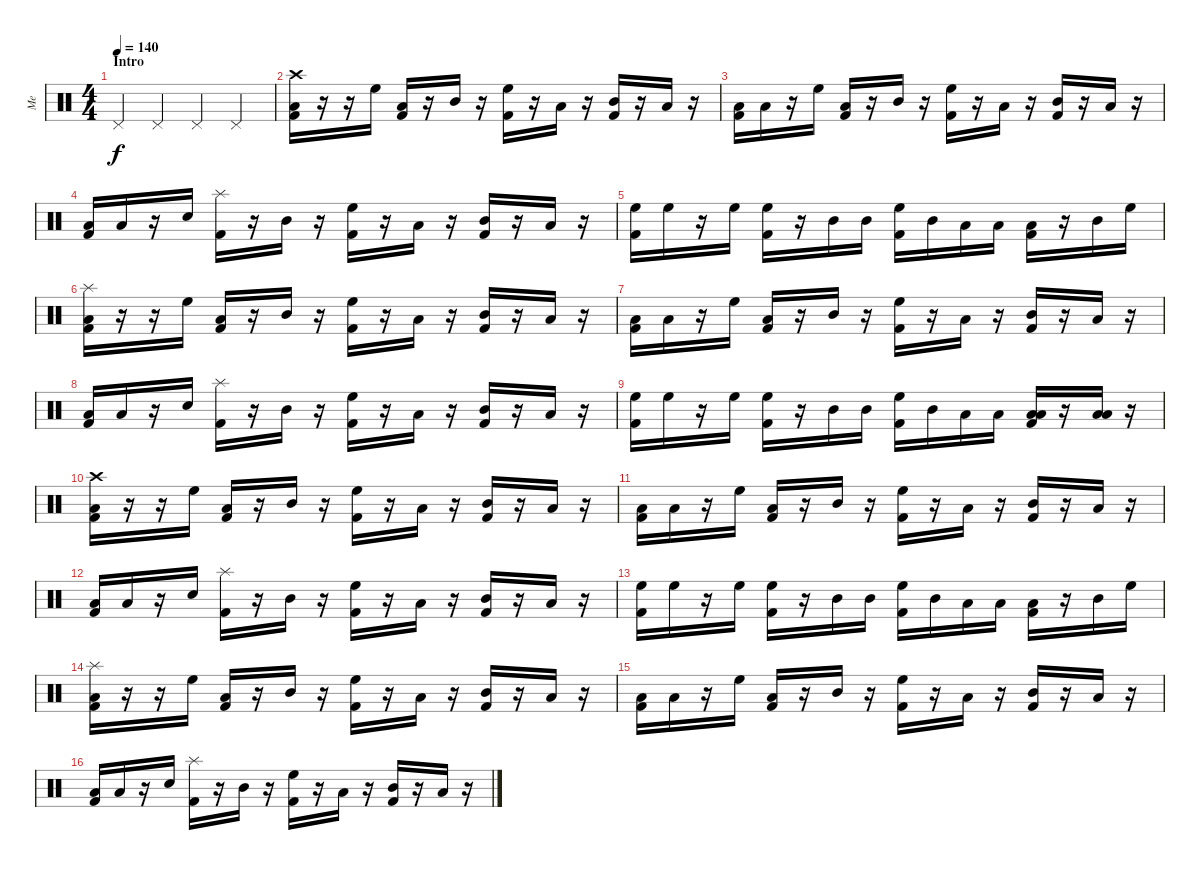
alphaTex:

\track ("Me" "Me") {instrument percussion}
\staff {score}
\articulation defaults
\ts (4 4)
\section ("" "Intro")
\tempo 140
\clef neutral
\ks c "Pedal Hi-Hat (hit)".4{dy f} "Pedal Hi-Hat (hit)".4 "Pedal Hi-Hat (hit)".4 "Pedal Hi-Hat (hit)".4
|
("Crash high (hit)" "Low Floor Tom (hit)" "Kick (hit) 2").16 r.16 r.16 "High Floor Tom (hit)".16 ("Low Tom (hit)" "Kick (hit) 2").16 r.16 "Mid Tom (hit)".16 r.16 ("High Floor Tom (hit)" "Kick (hit) 2").16 r.16 "Low Tom (hit)".16 r.16 ("Mid Tom (hit)" "Kick (hit) 2").16 r.16 "Low Floor Tom (hit)".16 r.16 |
("Low Floor Tom (hit)" "Kick (hit) 2").16 "Low Floor Tom (hit)".16 r.16 "High Floor Tom (hit)".16 ("Low Tom (hit)" "Kick (hit) 2").16 r.16 "Mid Tom (hit)".16 r.16 ("High Floor Tom (hit)" "Kick (hit) 2").16 r.16 "Low Tom (hit)".16 r.16 ("Mid Tom (hit)" "Kick (hit) 2").16 r.16 "Low Floor Tom (hit)".16 r.16 |
("Low Floor Tom (hit)" "Kick (hit) 2").16 "Low Floor Tom (hit)".16 r.16 "Electric Snare (hit)".16 ("Splash (hit)" "Kick (hit) 2").16 r.16 "Mid Tom (hit)".16 r.16 ("High Floor Tom (hit)" "Kick (hit) 2").16 r.16 "Low Tom (hit)".16 r.16 ("Mid Tom (hit)" "Kick (hit) 2").16 r.16 "Low Floor Tom (hit)".16 r.16 |
("High Floor Tom (hit)" "Kick (hit) 2").16 "High Floor Tom (hit)".16 r.16 "High Floor Tom (hit)".16 ("High Floor Tom (hit)" "Kick (hit) 2").16 r.16 "Mid Tom (hit)".16 "Mid Tom (hit)".16 ("High Floor Tom (hit)" "Kick (hit) 2").16 "Mid Tom (hit)".16 "Low Tom (hit)".16 "Low Floor Tom (hit)".16 ("Low Floor Tom (hit)" "Kick (hit) 2").16 r.16 "Mid Tom (hit)".16 "High Floor Tom (hit)".16 |
("Splash (hit)" "Low Floor Tom (hit)" "Kick (hit) 2").16 r.16 r.16 "High Floor Tom (hit)".16 ("Low Tom (hit)" "Kick (hit) 2").16 r.16 "Mid Tom (hit)".16 r.16 ("High Floor Tom (hit)" "Kick (hit) 2").16 r.16 "Low Tom (hit)".16 r.16 ("Mid Tom (hit)" "Kick (hit) 2").16 r.16 "Low Floor Tom (hit)".16 r.16 |
("Low Floor Tom (hit)" "Kick (hit) 2").16 "Low Floor Tom (hit)".16 r.16 "High Floor Tom (hit)".16 ("Low Tom (hit)" "Kick (hit) 2").16 r.16 "Mid Tom (hit)".16 r.16 ("High Floor Tom (hit)" "Kick (hit) 2").16 r.16 "Low Tom (hit)".16 r.16 ("Mid Tom (hit)" "Kick (hit) 2").16 r.16 "Low Floor Tom (hit)".16 r.16 |
("Low Floor Tom (hit)" "Kick (hit) 2").16 "Low Floor Tom (hit)".16 r.16 "Electric Snare (hit)".16 ("Splash (hit)" "Kick (hit) 2").16 r.16 "Mid Tom (hit)".16 r.16 ("High Floor Tom (hit)" "Kick (hit) 2").16 r.16 "Low Tom (hit)".16 r.16 ("Mid Tom (hit)" "Kick (hit) 2").16 r.16 "Low Floor Tom (hit)".16 r.16 |
("High Floor Tom (hit)" "Kick (hit) 2").16 "High Floor Tom (hit)".16 r.16 "High Floor Tom (hit)".16 ("High Floor Tom (hit)" "Kick (hit) 2").16 r.16 "Mid Tom (hit)".16 "Mid Tom (hit)".16 ("High Floor Tom (hit)" "Kick (hit) 2").16 "Mid Tom (hit)".16 "Low Tom (hit)".16 "Low Floor Tom (hit)".16 ("Low Tom (hit)" "Low Floor Tom (hit)" "Kick (hit) 2").16 r.16 ("Low Tom (hit)" "Low Floor Tom (hit)").16 r.16 |
("Crash high (hit)" "Low Floor Tom (hit)" "Kick (hit) 2").16 r.16 r.16 "High Floor Tom (hit)".16 ("Low Tom (hit)" "Kick (hit) 2").16 r.16 "Mid Tom (hit)".16 r.16 ("High Floor Tom (hit)" "Kick (hit) 2").16 r.16 "Low Tom (hit)".16 r.16 ("Mid Tom (hit)" "Kick (hit) 2").16 r.16 "Low Floor Tom (hit)".16 r.16 |
("Low Floor Tom (hit)" "Kick (hit) 2").16 "Low Floor Tom (hit)".16 r.16 "High Floor Tom (hit)".16 ("Low Tom (hit)" "Kick (hit) 2").16 r.16 "Mid Tom (hit)".16 r.16 ("High Floor Tom (hit)" "Kick (hit) 2").16 r.16 "Low Tom (hit)".16 r.16 ("Mid Tom (hit)" "Kick (hit) 2").16 r.16 "Low Floor Tom (hit)".16 r.16 |
("Low Floor Tom (hit)" "Kick (hit) 2").16 "Low Floor Tom (hit)".16 r.16 "Electric Snare (hit)".16 ("Splash (hit)" "Kick (hit) 2").16 r.16 "Mid Tom (hit)".16 r.16 ("High Floor Tom (hit)" "Kick (hit) 2").16 r.16 "Low Tom (hit)".16 r.16 ("Mid Tom (hit)" "Kick (hit) 2").16 r.16 "Low Floor Tom (hit)".16 r.16 |
("High Floor Tom (hit)" "Kick (hit) 2").16 "High Floor Tom (hit)".16 r.16 "High Floor Tom (hit)".16 ("High Floor Tom (hit)" "Kick (hit) 2").16 r.16 "Mid Tom (hit)".16 "Mid Tom (hit)".16 ("High Floor Tom (hit)" "Kick (hit) 2").16 "Mid Tom (hit)".16 "Low Tom (hit)".16 "Low Floor Tom (hit)".16 ("Low Floor Tom (hit)" "Kick (hit) 2").16 r.16 "Mid Tom (hit)".16 "High Floor Tom (hit)".16 |
("Splash (hit)" "Low Floor Tom (hit)" "Kick (hit) 2").16 r.16 r.16 "High Floor Tom (hit)".16 ("Low Tom (hit)" "Kick (hit) 2").16 r.16 "Mid Tom (hit)".16 r.16 ("High Floor Tom (hit)" "Kick (hit) 2").16 r.16 "Low Tom (hit)".16 r.16 ("Mid Tom (hit)" "Kick (hit) 2").16 r.16 "Low Floor Tom (hit)".16 r.16 |
("Low Floor Tom (hit)" "Kick (hit) 2").16 "Low Floor Tom (hit)".16 r.16 "High Floor Tom (hit)".16 ("Low Tom (hit)" "Kick (hit) 2").16 r.16 "Mid Tom (hit)".16 r.16 ("High Floor Tom (hit)" "Kick (hit) 2").16 r.16 "Low Tom (hit)".16 r.16 ("Mid Tom (hit)" "Kick (hit) 2").16 r.16 "Low Floor Tom (hit)".16 r.16 |
("Low Floor Tom (hit)" "Kick (hit) 2").16 "Low Floor Tom (hit)".16 r.16 "Electric Snare (hit)".16 ("Splash (hit)" "Kick (hit) 2").16 r.16 "Mid Tom (hit)".16 r.16 ("High Floor Tom (hit)" "Kick (hit) 2").16 r.16 "Low Tom (hit)".16 r.16 ("Mid Tom (hit)" "Kick (hit) 2").16 r.16 "Low Floor Tom (hit)".16 r.16
